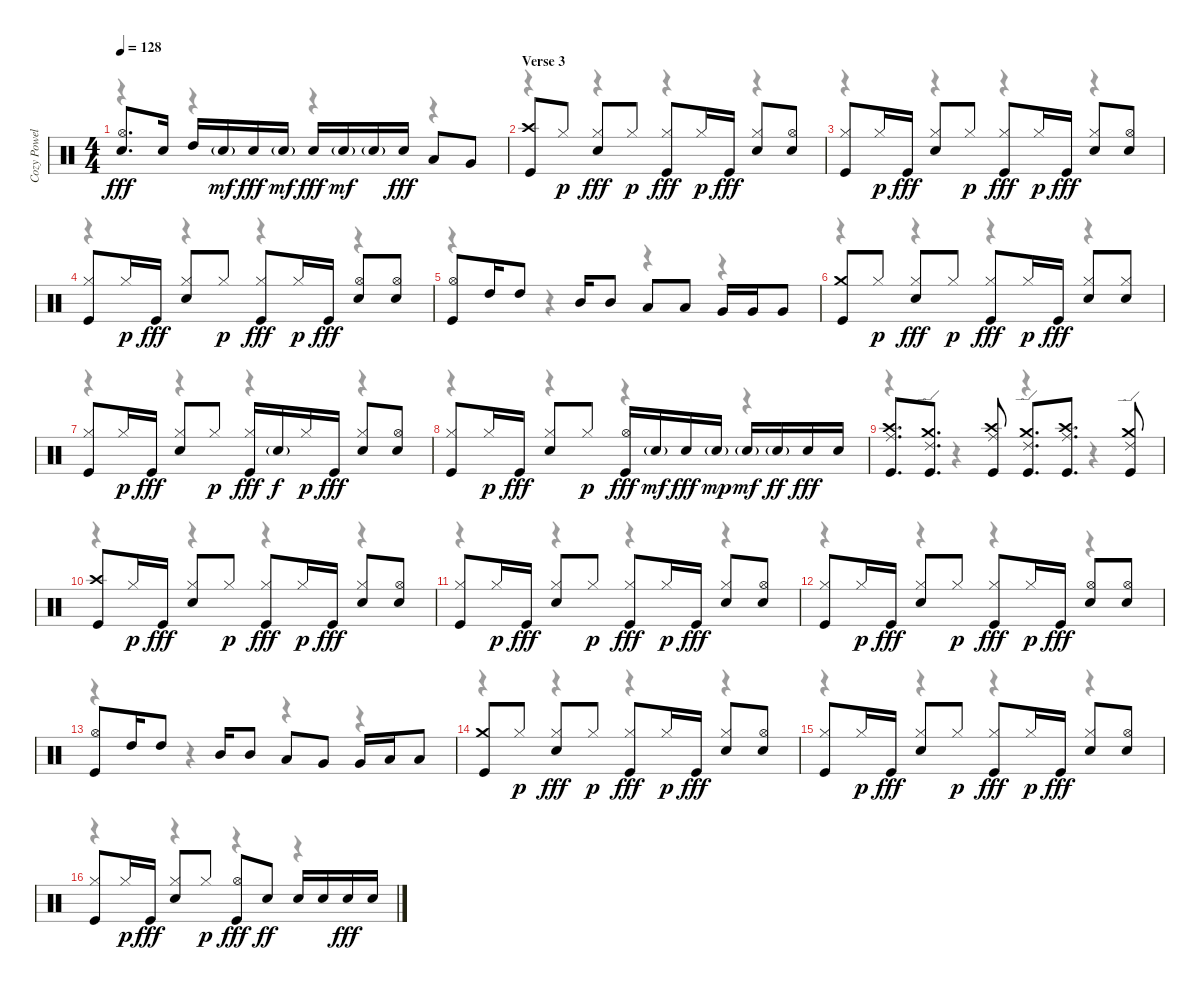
\track ("Cozy Powell - Drums" "Cozy Powel") {instrument percussion}
\staff {score}
\articulation defaults
\voice
\ts (4 4)
\tempo 128
\clef neutral
\ks c
("Snare (hit) 2" "Hi-Hat (open)").8{d dy fff} "Snare (hit) 2".16 "High Tom (hit)".16 "Snare (hit) 2"{g}.16{dy mf} "Snare (hit) 2".16{dy fff} "Snare (hit) 2"{g}.16{dy mf} "Snare (hit) 2".16{dy fff} "Snare (hit) 2"{g}.16{dy mf} "Snare (hit) 2"{g}.16 "Snare (hit) 2".16{dy fff} "Low Tom (hit)".8 "Very Low Tom (hit)".8 |
\section ("" "Verse 3")
("Kick (hit)" "Crash high (hit)").8 "Hi-Hat (closed)".8{dy p} ("Snare (hit) 2" "Hi-Hat (closed)").8{dy fff} "Hi-Hat (closed)".8{dy p} ("Kick (hit)" "Hi-Hat (closed)").8{dy fff} "Hi-Hat (closed)".16{dy p} "Kick (hit)".16{dy fff} ("Snare (hit) 2" "Hi-Hat (closed)").8 ("Snare (hit) 2" "Hi-Hat (open)").8 |
("Kick (hit)" "Hi-Hat (closed)").8 "Hi-Hat (closed)".16{dy p} "Kick (hit)".16{dy fff} ("Snare (hit) 2" "Hi-Hat (closed)").8 "Hi-Hat (closed)".8{dy p} ("Kick (hit)" "Hi-Hat (closed)").8{dy fff} "Hi-Hat (closed)".16{dy p} "Kick (hit)".16{dy fff} ("Snare (hit) 2" "Hi-Hat (closed)").8 ("Snare (hit) 2" "Hi-Hat (open)").8 |
("Kick (hit)" "Hi-Hat (closed)").8 "Hi-Hat (closed)".16{dy p} "Kick (hit)".16{dy fff} ("Snare (hit) 2" "Hi-Hat (closed)").8 "Hi-Hat (closed)".8{dy p} ("Kick (hit)" "Hi-Hat (closed)").8{dy fff} "Hi-Hat (closed)".16{dy p} "Kick (hit)".16{dy fff} ("Snare (hit) 2" "Hi-Hat (open)").8 ("Snare (hit) 2" "Hi-Hat (open)").8 |
("Kick (hit)" "Hi-Hat (open)").8 "High Tom (hit)".16 "High Tom (hit)".8 "Mid Tom (hit)".16 "Mid Tom (hit)".8 "Low Tom (hit)".8 "Low Tom (hit)".8 "Very Low Tom (hit)".16 "Very Low Tom (hit)".16 "Very Low Tom (hit)".8 |
("Kick (hit)" "Crash medium (hit)").8 "Hi-Hat (closed)".8{dy p} ("Snare (hit) 2" "Hi-Hat (closed)").8{dy fff} "Hi-Hat (closed)".8{dy p} ("Kick (hit)" "Hi-Hat (closed)").8{dy fff} "Hi-Hat (closed)".16{dy p} "Kick (hit)".16{dy fff} ("Snare (hit) 2" "Hi-Hat (closed)").8 ("Snare (hit) 2" "Hi-Hat (closed)").8 |
("Kick (hit)" "Hi-Hat (closed)").8 "Hi-Hat (closed)".16{dy p} "Kick (hit)".16{dy fff} ("Snare (hit) 2" "Hi-Hat (closed)").8 "Hi-Hat (closed)".8{dy p} ("Kick (hit)" "Hi-Hat (closed)").16{dy fff} "Snare (hit) 2"{g}.16{dy f} "Hi-Hat (closed)".16{dy p} "Kick (hit)".16{dy fff} ("Snare (hit) 2" "Hi-Hat (closed)").8 ("Snare (hit) 2" "Hi-Hat (open)").8 |
("Kick (hit)" "Hi-Hat (closed)").8 "Hi-Hat (closed)".16{dy p} "Kick (hit)".16{dy fff} ("Snare (hit) 2" "Hi-Hat (closed)").8 "Hi-Hat (closed)".8{dy p} ("Kick (hit)" "Hi-Hat (open)").16{dy fff} "Snare (hit) 2"{g}.16{dy mf} "Snare (hit) 2".16{dy fff} "Snare (hit) 2"{g}.16{dy mp} "Snare (hit) 2"{g}.16{dy mf} "Snare (hit) 2"{g}.16{dy ff} "Snare (hit) 2".16{dy fff} "Snare (hit) 2".16 |
("Kick (hit)" "Ride (middle)" "Crash high (hit)").8{d} ("Kick (hit)" "Ride (edge) 2" "Crash medium (hit)").8{d} ("Kick (hit)" "Ride (middle)" "Crash high (hit)").8 ("Kick (hit)" "Ride (edge) 2" "Crash medium (hit)").8{d} ("Kick (hit)" "Ride (middle)" "Crash high (hit)").8{d} ("Kick (hit)" "Ride (edge) 2" "Crash medium (hit)").8 |
("Kick (hit)" "Crash high (hit)").8 "Hi-Hat (closed)".16{dy p} "Kick (hit)".16{dy fff} ("Snare (hit) 2" "Hi-Hat (closed)").8 "Hi-Hat (closed)".8{dy p} ("Kick (hit)" "Hi-Hat (closed)").8{dy fff} "Hi-Hat (closed)".16{dy p} "Kick (hit)".16{dy fff} ("Snare (hit) 2" "Hi-Hat (closed)").8 ("Snare (hit) 2" "Hi-Hat (open)").8 |
("Kick (hit)" "Hi-Hat (closed)").8 "Hi-Hat (closed)".16{dy p} "Kick (hit)".16{dy fff} ("Snare (hit) 2" "Hi-Hat (closed)").8 "Hi-Hat (closed)".8{dy p} ("Kick (hit)" "Hi-Hat (closed)").8{dy fff} "Hi-Hat (closed)".16{dy p} "Kick (hit)".16{dy fff} ("Snare (hit) 2" "Hi-Hat (closed)").8 ("Snare (hit) 2" "Hi-Hat (open)").8 |
("Kick (hit)" "Hi-Hat (closed)").8 "Hi-Hat (closed)".16{dy p} "Kick (hit)".16{dy fff} ("Snare (hit) 2" "Hi-Hat (closed)").8 "Hi-Hat (closed)".8{dy p} ("Kick (hit)" "Hi-Hat (closed)").8{dy fff} "Hi-Hat (closed)".16{dy p} "Kick (hit)".16{dy fff} ("Snare (hit) 2" "Hi-Hat (open)").8 ("Snare (hit) 2" "Hi-Hat (open)").8 |
("Kick (hit)" "Hi-Hat (open)").8 "High Tom (hit)".16 "High Tom (hit)".8 "Mid Tom (hit)".16 "Mid Tom (hit)".8 "Low Tom (hit)".8 "Very Low Tom (hit)".8 "Very Low Tom (hit)".16 "Low Floor Tom (hit)".16 "Low Floor Tom (hit)".8 |
("Kick (hit)" "Crash medium (hit)").8 "Hi-Hat (closed)".8{dy p} ("Snare (hit) 2" "Hi-Hat (closed)").8{dy fff} "Hi-Hat (closed)".8{dy p} ("Kick (hit)" "Hi-Hat (closed)").8{dy fff} "Hi-Hat (closed)".16{dy p} "Kick (hit)".16{dy fff} ("Snare (hit) 2" "Hi-Hat (closed)").8 ("Snare (hit) 2" "Hi-Hat (open)").8 |
("Kick (hit)" "Hi-Hat (closed)").8 "Hi-Hat (closed)".16{dy p} "Kick (hit)".16{dy fff} ("Snare (hit) 2" "Hi-Hat (closed)").8 "Hi-Hat (closed)".8{dy p} ("Kick (hit)" "Hi-Hat (closed)").8{dy fff} "Hi-Hat (closed)".16{dy p} "Kick (hit)".16{dy fff} ("Snare (hit) 2" "Hi-Hat (closed)").8 ("Snare (hit) 2" "Hi-Hat (open)").8 |
("Kick (hit)" "Hi-Hat (closed)").8 "Hi-Hat (closed)".16{dy p} "Kick (hit)".16{dy fff} ("Snare (hit) 2" "Hi-Hat (closed)").8 "Hi-Hat (closed)".8{dy p} ("Kick (hit)" "Hi-Hat (open)").8{dy fff} "Snare (hit) 2".8{dy ff} "Snare (hit) 2".16 "Snare (hit) 2".16 "Snare (hit) 2".16{dy fff} "Snare (hit) 2".16
\voice
\clef neutral
\ottava regular
\simile none
\ks c
r.4{dy f} r.4 r.4 r.4 |
r.4 r.4 r.4 r.4 |
r.4 r.4 r.4 r.4 |
r.4 r.4 r.4 r.4 |
r.4 r.4 r.4 r.4 |
r.4 r.4 r.4 r.4 |
r.4 r.4 r.4 r.4 |
r.4 r.4 r.4 r.4 |
r.4 r.4 r.4 r.4 |
r.4 r.4 r.4 r.4 |
r.4 r.4 r.4 r.4 |
r.4 r.4 r.4 r.4 |
r.4 r.4 r.4 r.4 |
r.4 r.4 r.4 r.4 |
r.4 r.4 r.4 r.4 |
r.4 r.4 r.4 r.4
